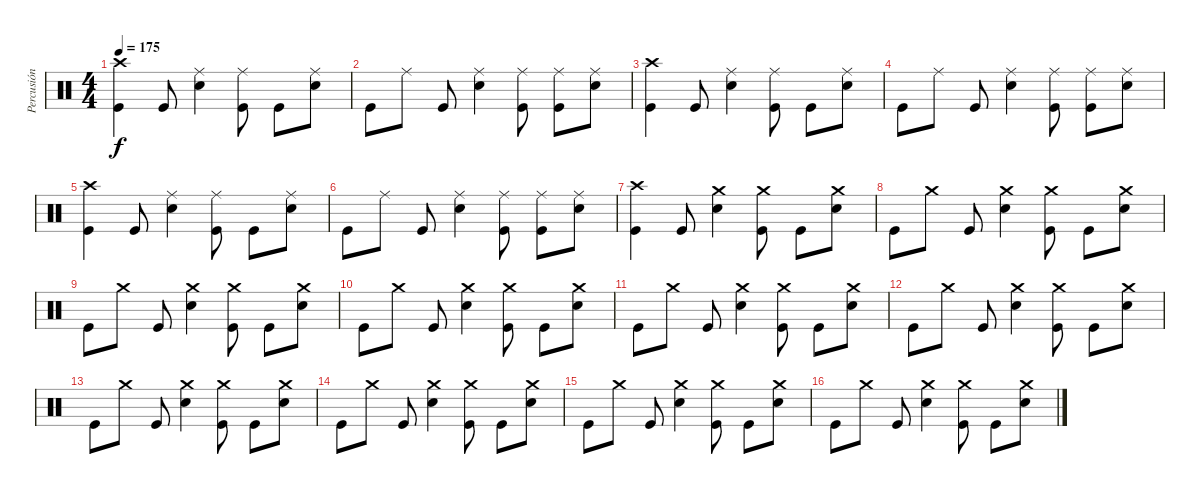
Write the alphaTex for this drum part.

\track ("Percusión" "Percusión") {instrument percussion}
\staff {score}
\articulation defaults
\ts (4 4)
\tempo 175
\clef neutral
\ks c
("Kick (hit)" "Crash high (hit)").4{dy f} "Kick (hit)".8 ("Snare (hit) 2" "Ride (middle)").4 ("Kick (hit)" "Ride (middle)").8 "Kick (hit)".8 ("Snare (hit) 2" "Ride (middle)").8 |
"Kick (hit)".8 "Ride (middle)".8 "Kick (hit)".8 ("Snare (hit) 2" "Ride (middle)").4 ("Kick (hit)" "Ride (middle)").8 ("Kick (hit)" "Ride (middle)").8 ("Snare (hit) 2" "Ride (middle)").8 |
("Kick (hit)" "Crash high (hit)").4 "Kick (hit)".8 ("Snare (hit) 2" "Ride (middle)").4 ("Kick (hit)" "Ride (middle)").8 "Kick (hit)".8 ("Snare (hit) 2" "Ride (middle)").8 |
"Kick (hit)".8 "Ride (middle)".8 "Kick (hit)".8 ("Snare (hit) 2" "Ride (middle)").4 ("Kick (hit)" "Ride (middle)").8 ("Kick (hit)" "Ride (middle)").8 ("Snare (hit) 2" "Ride (middle)").8 |
("Kick (hit)" "Crash high (hit)").4 "Kick (hit)".8 ("Snare (hit) 2" "Ride (middle)").4 ("Kick (hit)" "Ride (middle)").8 "Kick (hit)".8 ("Snare (hit) 2" "Ride (middle)").8 |
"Kick (hit)".8 "Ride (middle)".8 "Kick (hit)".8 ("Snare (hit) 2" "Ride (middle)").4 ("Kick (hit)" "Ride (middle)").8 ("Kick (hit)" "Ride (middle)").8 ("Snare (hit) 2" "Ride (middle)").8 |
("Kick (hit)" "Crash high (hit)").4{volume 8} "Kick (hit)".8 ("Snare (hit) 2" "Crash medium (hit)").4 ("Kick (hit)" "Crash medium (hit)").8 "Kick (hit)".8 ("Snare (hit) 2" "Crash medium (hit)").8 |
"Kick (hit)".8 "Crash medium (hit)".8 "Kick (hit)".8 ("Snare (hit) 2" "Crash medium (hit)").4 ("Kick (hit)" "Crash medium (hit)").8 "Kick (hit)".8 ("Snare (hit) 2" "Crash medium (hit)").8 |
"Kick (hit)".8 "Crash medium (hit)".8 "Kick (hit)".8 ("Snare (hit) 2" "Crash medium (hit)").4 ("Kick (hit)" "Crash medium (hit)").8 "Kick (hit)".8 ("Snare (hit) 2" "Crash medium (hit)").8 |
"Kick (hit)".8 "Crash medium (hit)".8 "Kick (hit)".8 ("Snare (hit) 2" "Crash medium (hit)").4 ("Kick (hit)" "Crash medium (hit)").8 "Kick (hit)".8 ("Snare (hit) 2" "Crash medium (hit)").8 |
"Kick (hit)".8{volume 4} "Crash medium (hit)".8 "Kick (hit)".8 ("Snare (hit) 2" "Crash medium (hit)").4 ("Kick (hit)" "Crash medium (hit)").8 "Kick (hit)".8 ("Snare (hit) 2" "Crash medium (hit)").8 |
"Kick (hit)".8 "Crash medium (hit)".8 "Kick (hit)".8 ("Snare (hit) 2" "Crash medium (hit)").4 ("Kick (hit)" "Crash medium (hit)").8 "Kick (hit)".8 ("Snare (hit) 2" "Crash medium (hit)").8 |
"Kick (hit)".8 "Crash medium (hit)".8 "Kick (hit)".8 ("Snare (hit) 2" "Crash medium (hit)").4 ("Kick (hit)" "Crash medium (hit)").8 "Kick (hit)".8 ("Snare (hit) 2" "Crash medium (hit)").8 |
"Kick (hit)".8 "Crash medium (hit)".8 "Kick (hit)".8 ("Snare (hit) 2" "Crash medium (hit)").4 ("Kick (hit)" "Crash medium (hit)").8 "Kick (hit)".8 ("Snare (hit) 2" "Crash medium (hit)").8 |
"Kick (hit)".8{volume 1} "Crash medium (hit)".8 "Kick (hit)".8 ("Snare (hit) 2" "Crash medium (hit)").4 ("Kick (hit)" "Crash medium (hit)").8 "Kick (hit)".8 ("Snare (hit) 2" "Crash medium (hit)").8 |
"Kick (hit)".8 "Crash medium (hit)".8 "Kick (hit)".8 ("Snare (hit) 2" "Crash medium (hit)").4 ("Kick (hit)" "Crash medium (hit)").8 "Kick (hit)".8 ("Snare (hit) 2" "Crash medium (hit)").8
